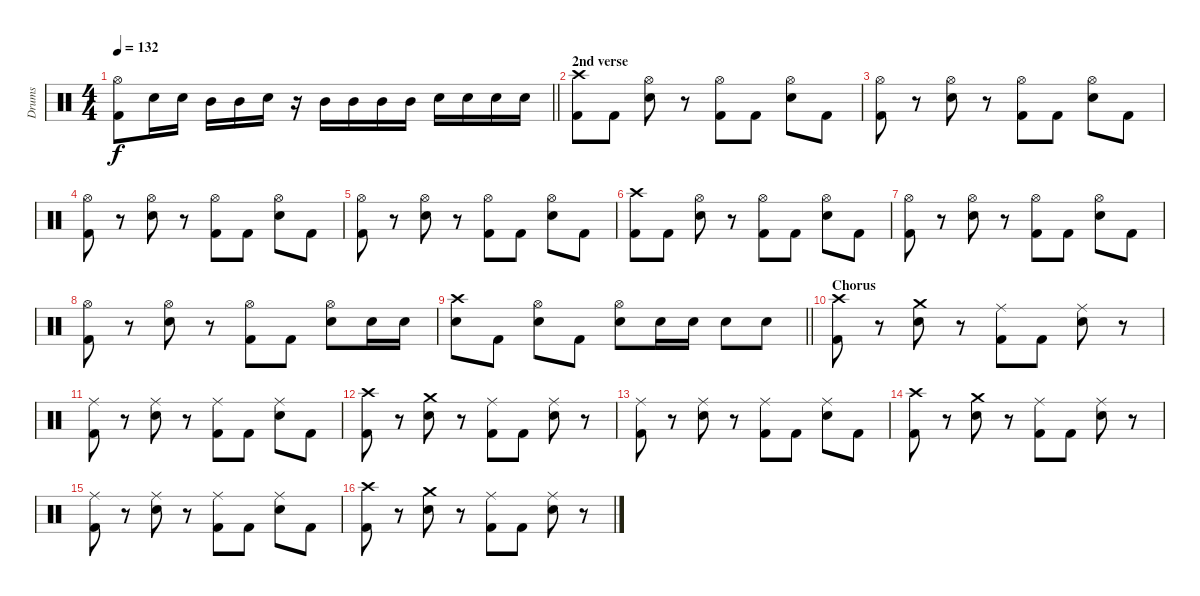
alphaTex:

\track ("Drums" "Drums") {instrument percussion}
\staff {score}
\articulation defaults
\ts (4 4)
\tempo 132
\clef neutral
\barLineRight lightlight
\ks c
("Hi-Hat (open)" "Kick (hit) 2").8{dy f} "Electric Snare (hit)".16 "Electric Snare (hit)".16 "Mid Tom (hit)".16 "Mid Tom (hit)".16 "Electric Snare (hit)".16 r.16 "Mid Tom (hit)".16 "Mid Tom (hit)".16 "Mid Tom (hit)".16 "Mid Tom (hit)".16 "Electric Snare (hit)".16 "Electric Snare (hit)".16 "Electric Snare (hit)".16 "Electric Snare (hit)".16 |
\section ("" "2nd verse")
("Crash high (hit)" "Kick (hit) 2").8 "Kick (hit) 2".8 ("Hi-Hat (open)" "Electric Snare (hit)").8 r.8 ("Hi-Hat (open)" "Kick (hit) 2").8 "Kick (hit) 2".8 ("Hi-Hat (open)" "Electric Snare (hit)").8 "Kick (hit) 2".8 |
("Hi-Hat (open)" "Kick (hit) 2").8 r.8 ("Hi-Hat (open)" "Electric Snare (hit)").8 r.8 ("Hi-Hat (open)" "Kick (hit) 2").8 "Kick (hit) 2".8 ("Hi-Hat (open)" "Electric Snare (hit)").8 "Kick (hit) 2".8 |
("Hi-Hat (open)" "Kick (hit) 2").8 r.8 ("Hi-Hat (open)" "Electric Snare (hit)").8 r.8 ("Hi-Hat (open)" "Kick (hit) 2").8 "Kick (hit) 2".8 ("Hi-Hat (open)" "Electric Snare (hit)").8 "Kick (hit) 2".8 |
("Hi-Hat (open)" "Kick (hit) 2").8 r.8 ("Hi-Hat (open)" "Electric Snare (hit)").8 r.8 ("Hi-Hat (open)" "Kick (hit) 2").8 "Kick (hit) 2".8 ("Hi-Hat (open)" "Electric Snare (hit)").8 "Kick (hit) 2".8 |
("Crash high (hit)" "Kick (hit) 2").8 "Kick (hit) 2".8 ("Hi-Hat (open)" "Electric Snare (hit)").8 r.8 ("Hi-Hat (open)" "Kick (hit) 2").8 "Kick (hit) 2".8 ("Hi-Hat (open)" "Electric Snare (hit)").8 "Kick (hit) 2".8 |
("Hi-Hat (open)" "Kick (hit) 2").8 r.8 ("Hi-Hat (open)" "Electric Snare (hit)").8 r.8 ("Hi-Hat (open)" "Kick (hit) 2").8 "Kick (hit) 2".8 ("Hi-Hat (open)" "Electric Snare (hit)").8 "Kick (hit) 2".8 |
("Hi-Hat (open)" "Kick (hit) 2").8 r.8 ("Hi-Hat (open)" "Electric Snare (hit)").8 r.8 ("Hi-Hat (open)" "Kick (hit) 2").8 "Kick (hit) 2".8 ("Hi-Hat (open)" "Electric Snare (hit)").8 "Electric Snare (hit)".16 "Electric Snare (hit)".16 |
\barLineRight lightlight
("Crash high (hit)" "Electric Snare (hit)").8 "Kick (hit) 2".8 ("Hi-Hat (open)" "Electric Snare (hit)").8 "Kick (hit) 2".8 ("Hi-Hat (open)" "Electric Snare (hit)").8 "Electric Snare (hit)".16 "Electric Snare (hit)".16 "Electric Snare (hit)".8 "Electric Snare (hit)".8 |
\section ("" "Chorus")
("Crash high (hit)" "Kick (hit) 2").8 r.8 ("Crash medium (hit)" "Electric Snare (hit)").8 r.8 ("Ride (middle)" "Kick (hit) 2").8 "Kick (hit) 2".8 ("Ride (middle)" "Electric Snare (hit)").8 r.8 |
("Ride (middle)" "Kick (hit) 2").8 r.8 ("Ride (middle)" "Electric Snare (hit)").8 r.8 ("Ride (middle)" "Kick (hit) 2").8 "Kick (hit) 2".8 ("Ride (middle)" "Electric Snare (hit)").8 "Kick (hit) 2".8 |
("Crash high (hit)" "Kick (hit) 2").8 r.8 ("Crash medium (hit)" "Electric Snare (hit)").8 r.8 ("Ride (middle)" "Kick (hit) 2").8 "Kick (hit) 2".8 ("Ride (middle)" "Electric Snare (hit)").8 r.8 |
("Ride (middle)" "Kick (hit) 2").8 r.8 ("Ride (middle)" "Electric Snare (hit)").8 r.8 ("Ride (middle)" "Kick (hit) 2").8 "Kick (hit) 2".8 ("Ride (middle)" "Electric Snare (hit)").8 "Kick (hit) 2".8 |
("Crash high (hit)" "Kick (hit) 2").8 r.8 ("Crash medium (hit)" "Electric Snare (hit)").8 r.8 ("Ride (middle)" "Kick (hit) 2").8 "Kick (hit) 2".8 ("Ride (middle)" "Electric Snare (hit)").8 r.8 |
("Ride (middle)" "Kick (hit) 2").8 r.8 ("Ride (middle)" "Electric Snare (hit)").8 r.8 ("Ride (middle)" "Kick (hit) 2").8 "Kick (hit) 2".8 ("Ride (middle)" "Electric Snare (hit)").8 "Kick (hit) 2".8 |
("Crash high (hit)" "Kick (hit) 2").8 r.8 ("Crash medium (hit)" "Electric Snare (hit)").8 r.8 ("Ride (middle)" "Kick (hit) 2").8 "Kick (hit) 2".8 ("Ride (middle)" "Electric Snare (hit)").8 r.8
